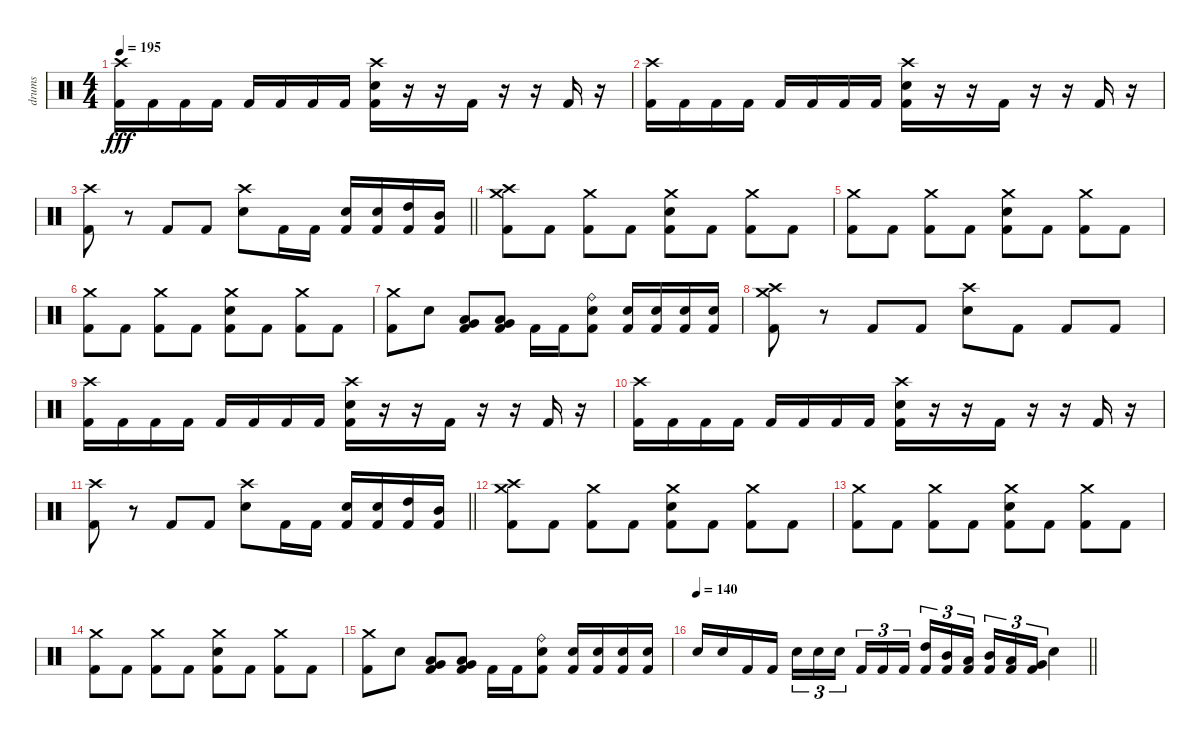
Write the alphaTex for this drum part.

\track ("drums" "drums") {instrument percussion}
\staff {score}
\articulation defaults
\ts (4 4)
\tempo 195
\clef neutral
\ks c
("Crash high (hit)" "Kick (hit) 2").16{dy fff} "Kick (hit) 2".16 "Kick (hit) 2".16 "Kick (hit) 2".16 "Kick (hit) 2".16 "Kick (hit) 2".16 "Kick (hit) 2".16 "Kick (hit) 2".16 ("Crash high (hit)" "Electric Snare (hit)" "Kick (hit) 2").16 r.16 r.16 "Kick (hit) 2".16 r.16 r.16 "Kick (hit) 2".16 r.16 |
("Crash high (hit)" "Kick (hit) 2").16 "Kick (hit) 2".16 "Kick (hit) 2".16 "Kick (hit) 2".16 "Kick (hit) 2".16 "Kick (hit) 2".16 "Kick (hit) 2".16 "Kick (hit) 2".16 ("Crash high (hit)" "Electric Snare (hit)" "Kick (hit) 2").16 r.16 r.16 "Kick (hit) 2".16 r.16 r.16 "Kick (hit) 2".16 r.16 |
\barLineRight lightlight
("Crash high (hit)" "Kick (hit) 2").8 r.8 "Kick (hit) 2".8 "Kick (hit) 2".8 ("Crash high (hit)" "Electric Snare (hit)").8 "Kick (hit) 2".16 "Kick (hit) 2".16 ("Electric Snare (hit)" "Kick (hit) 2").16 ("Electric Snare (hit)" "Kick (hit) 2").16 ("High Tom (hit)" "Kick (hit) 2").16 ("Mid Tom (hit)" "Kick (hit) 2").16 |
("Crash medium (hit)" "Crash high (hit)" "Kick (hit) 2").8 "Kick (hit) 2".8 ("Crash medium (hit)" "Kick (hit) 2").8 "Kick (hit) 2".8 ("Crash medium (hit)" "Electric Snare (hit)" "Kick (hit) 2").8 "Kick (hit) 2".8 ("Crash medium (hit)" "Kick (hit) 2").8 "Kick (hit) 2".8 |
("Crash medium (hit)" "Kick (hit) 2").8 "Kick (hit) 2".8 ("Crash medium (hit)" "Kick (hit) 2").8 "Kick (hit) 2".8 ("Crash medium (hit)" "Electric Snare (hit)" "Kick (hit) 2").8 "Kick (hit) 2".8 ("Crash medium (hit)" "Kick (hit) 2").8 "Kick (hit) 2".8 |
("Crash medium (hit)" "Kick (hit) 2").8 "Kick (hit) 2".8 ("Crash medium (hit)" "Kick (hit) 2").8 "Kick (hit) 2".8 ("Crash medium (hit)" "Electric Snare (hit)" "Kick (hit) 2").8 "Kick (hit) 2".8 ("Crash medium (hit)" "Kick (hit) 2").8 "Kick (hit) 2".8 |
("Crash medium (hit)" "Kick (hit) 2").8 "Electric Snare (hit)".8 ("Very Low Tom (hit)" "Low Floor Tom (hit)" "Kick (hit) 2").8 ("Very Low Tom (hit)" "Low Floor Tom (hit)" "Kick (hit) 2").8 "Kick (hit) 2".16 "Kick (hit) 2".16 ("Ride (bell)" "Electric Snare (hit)" "Kick (hit) 2").8 ("Electric Snare (hit)" "Kick (hit) 2").16 ("Electric Snare (hit)" "Kick (hit) 2").16 ("Electric Snare (hit)" "Kick (hit) 2").16 ("Electric Snare (hit)" "Kick (hit) 2").16 |
("Crash medium (hit)" "Crash high (hit)" "Kick (hit) 2").8 r.8 "Kick (hit) 2".8 "Kick (hit) 2".8 ("Crash high (hit)" "Electric Snare (hit)").8 "Kick (hit) 2".8 "Kick (hit) 2".8 "Kick (hit) 2".8 |
("Crash high (hit)" "Kick (hit) 2").16 "Kick (hit) 2".16 "Kick (hit) 2".16 "Kick (hit) 2".16 "Kick (hit) 2".16 "Kick (hit) 2".16 "Kick (hit) 2".16 "Kick (hit) 2".16 ("Crash high (hit)" "Electric Snare (hit)" "Kick (hit) 2").16 r.16 r.16 "Kick (hit) 2".16 r.16 r.16 "Kick (hit) 2".16 r.16 |
("Crash high (hit)" "Kick (hit) 2").16 "Kick (hit) 2".16 "Kick (hit) 2".16 "Kick (hit) 2".16 "Kick (hit) 2".16 "Kick (hit) 2".16 "Kick (hit) 2".16 "Kick (hit) 2".16 ("Crash high (hit)" "Electric Snare (hit)" "Kick (hit) 2").16 r.16 r.16 "Kick (hit) 2".16 r.16 r.16 "Kick (hit) 2".16 r.16 |
\barLineRight lightlight
("Crash high (hit)" "Kick (hit) 2").8 r.8 "Kick (hit) 2".8 "Kick (hit) 2".8 ("Crash high (hit)" "Electric Snare (hit)").8 "Kick (hit) 2".16 "Kick (hit) 2".16 ("Electric Snare (hit)" "Kick (hit) 2").16 ("Electric Snare (hit)" "Kick (hit) 2").16 ("High Tom (hit)" "Kick (hit) 2").16 ("Mid Tom (hit)" "Kick (hit) 2").16 |
("Crash medium (hit)" "Crash high (hit)" "Kick (hit) 2").8 "Kick (hit) 2".8 ("Crash medium (hit)" "Kick (hit) 2").8 "Kick (hit) 2".8 ("Crash medium (hit)" "Electric Snare (hit)" "Kick (hit) 2").8 "Kick (hit) 2".8 ("Crash medium (hit)" "Kick (hit) 2").8 "Kick (hit) 2".8 |
("Crash medium (hit)" "Kick (hit) 2").8 "Kick (hit) 2".8 ("Crash medium (hit)" "Kick (hit) 2").8 "Kick (hit) 2".8 ("Crash medium (hit)" "Electric Snare (hit)" "Kick (hit) 2").8 "Kick (hit) 2".8 ("Crash medium (hit)" "Kick (hit) 2").8 "Kick (hit) 2".8 |
("Crash medium (hit)" "Kick (hit) 2").8 "Kick (hit) 2".8 ("Crash medium (hit)" "Kick (hit) 2").8 "Kick (hit) 2".8 ("Crash medium (hit)" "Electric Snare (hit)" "Kick (hit) 2").8 "Kick (hit) 2".8 ("Crash medium (hit)" "Kick (hit) 2").8 "Kick (hit) 2".8 |
("Crash medium (hit)" "Kick (hit) 2").8 "Electric Snare (hit)".8 ("Very Low Tom (hit)" "Low Floor Tom (hit)" "Kick (hit) 2").8 ("Very Low Tom (hit)" "Low Floor Tom (hit)" "Kick (hit) 2").8 "Kick (hit) 2".16 "Kick (hit) 2".16 ("Ride (bell)" "Electric Snare (hit)" "Kick (hit) 2").8 ("Electric Snare (hit)" "Kick (hit) 2").16 ("Electric Snare (hit)" "Kick (hit) 2").16 ("Electric Snare (hit)" "Kick (hit) 2").16 ("Electric Snare (hit)" "Kick (hit) 2").16 |
\tempo 140
\barLineRight lightlight "Electric Snare (hit)".16 "Electric Snare (hit)".16 "Kick (hit) 2".16 "Kick (hit) 2".16 "Electric Snare (hit)".16{tu (3 2)} "Electric Snare (hit)".16{tu (3 2)} "Electric Snare (hit)".16{tu (3 2) beam splitsecondary} "Kick (hit) 2".16{tu (3 2)} "Kick (hit) 2".16{tu (3 2)} "Kick (hit) 2".16{tu (3 2)}
("High Tom (hit)" "Kick (hit) 2").16{tu (3 2)} ("Mid Tom (hit)" "Kick (hit) 2").16{tu (3 2)} ("Low Tom (hit)" "Kick (hit) 2").16{tu (3 2) beam splitsecondary} ("Mid Tom (hit)" "Kick (hit) 2").16{tu (3 2)} ("Low Tom (hit)" "Kick (hit) 2").16{tu (3 2)} ("Very Low Tom (hit)" "Kick (hit) 2").16{tu (3 2)} "Electric Snare (hit)".4
